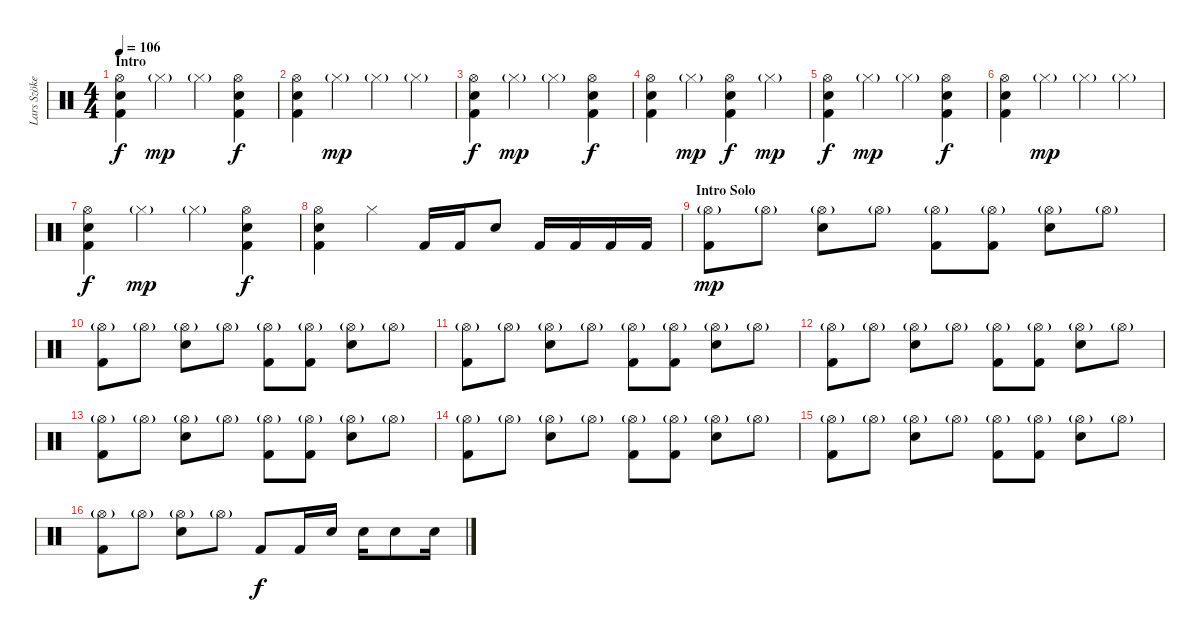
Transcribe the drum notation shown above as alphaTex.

\track ("Lars Szöke/Horgh" "Lars Szöke") {instrument percussion}
\staff {score}
\articulation defaults
\ts (4 4)
\section ("" "Intro")
\tempo 106
\clef neutral
\ks c
("Hi-Hat (open)" "Electric Snare (hit)" "Kick (hit) 2").4{dy f} "Hi-Hat (closed)"{g}.4{dy mp} "Hi-Hat (closed)"{g}.4 ("Hi-Hat (open)" "Electric Snare (hit)" "Kick (hit) 2").4{dy f} |
("Hi-Hat (open)" "Electric Snare (hit)" "Kick (hit) 2").4 "Hi-Hat (closed)"{g}.4{dy mp} "Hi-Hat (closed)"{g}.4 "Hi-Hat (closed)"{g}.4 |
("Hi-Hat (open)" "Electric Snare (hit)" "Kick (hit) 2").4{dy f} "Hi-Hat (closed)"{g}.4{dy mp} "Hi-Hat (closed)"{g}.4 ("Hi-Hat (open)" "Electric Snare (hit)" "Kick (hit) 2").4{dy f} |
("Hi-Hat (open)" "Electric Snare (hit)" "Kick (hit) 2").4 "Hi-Hat (closed)"{g}.4{dy mp} ("Hi-Hat (open)" "Electric Snare (hit)" "Kick (hit) 2").4{dy f} "Hi-Hat (closed)"{g}.4{dy mp} |
("Hi-Hat (open)" "Electric Snare (hit)" "Kick (hit) 2").4{dy f} "Hi-Hat (closed)"{g}.4{dy mp} "Hi-Hat (closed)"{g}.4 ("Hi-Hat (open)" "Electric Snare (hit)" "Kick (hit) 2").4{dy f} |
("Hi-Hat (open)" "Electric Snare (hit)" "Kick (hit) 2").4 "Hi-Hat (closed)"{g}.4{dy mp} "Hi-Hat (closed)"{g}.4 "Hi-Hat (closed)"{g}.4 |
("Hi-Hat (open)" "Electric Snare (hit)" "Kick (hit) 2").4{dy f} "Hi-Hat (closed)"{g}.4{dy mp} "Hi-Hat (closed)"{g}.4 ("Hi-Hat (open)" "Electric Snare (hit)" "Kick (hit) 2").4{dy f} |
("Hi-Hat (open)" "Electric Snare (hit)" "Kick (hit) 2").4 "Hi-Hat (closed)".4 "Kick (hit) 2".16 "Kick (hit) 2".16 "Snare (hit) 2".8 "Kick (hit) 2".16 "Kick (hit) 2".16 "Kick (hit) 2".16 "Kick (hit) 2".16 |
\section ("" "Intro Solo")
("Hi-Hat (open)"{g} "Kick (hit) 2").8{dy mp} "Hi-Hat (open)"{g}.8 ("Hi-Hat (open)"{g} "Snare (hit) 2").8 "Hi-Hat (open)"{g}.8 ("Hi-Hat (open)"{g} "Kick (hit) 2").8 ("Hi-Hat (open)"{g} "Kick (hit) 2").8 ("Hi-Hat (open)"{g} "Snare (hit) 2").8 "Hi-Hat (open)"{g}.8 |
("Hi-Hat (open)"{g} "Kick (hit) 2").8 "Hi-Hat (open)"{g}.8 ("Hi-Hat (open)"{g} "Snare (hit) 2").8 "Hi-Hat (open)"{g}.8 ("Hi-Hat (open)"{g} "Kick (hit) 2").8 ("Hi-Hat (open)"{g} "Kick (hit) 2").8 ("Hi-Hat (open)"{g} "Snare (hit) 2").8 "Hi-Hat (open)"{g}.8 |
("Hi-Hat (open)"{g} "Kick (hit) 2").8 "Hi-Hat (open)"{g}.8 ("Hi-Hat (open)"{g} "Snare (hit) 2").8 "Hi-Hat (open)"{g}.8 ("Hi-Hat (open)"{g} "Kick (hit) 2").8 ("Hi-Hat (open)"{g} "Kick (hit) 2").8 ("Hi-Hat (open)"{g} "Snare (hit) 2").8 "Hi-Hat (open)"{g}.8 |
("Hi-Hat (open)"{g} "Kick (hit) 2").8 "Hi-Hat (open)"{g}.8 ("Hi-Hat (open)"{g} "Snare (hit) 2").8 "Hi-Hat (open)"{g}.8 ("Hi-Hat (open)"{g} "Kick (hit) 2").8 ("Hi-Hat (open)"{g} "Kick (hit) 2").8 ("Hi-Hat (open)"{g} "Snare (hit) 2").8 "Hi-Hat (open)"{g}.8 |
("Hi-Hat (open)"{g} "Kick (hit) 2").8 "Hi-Hat (open)"{g}.8 ("Hi-Hat (open)"{g} "Snare (hit) 2").8 "Hi-Hat (open)"{g}.8 ("Hi-Hat (open)"{g} "Kick (hit) 2").8 ("Hi-Hat (open)"{g} "Kick (hit) 2").8 ("Hi-Hat (open)"{g} "Snare (hit) 2").8 "Hi-Hat (open)"{g}.8 |
("Hi-Hat (open)"{g} "Kick (hit) 2").8 "Hi-Hat (open)"{g}.8 ("Hi-Hat (open)"{g} "Snare (hit) 2").8 "Hi-Hat (open)"{g}.8 ("Hi-Hat (open)"{g} "Kick (hit) 2").8 ("Hi-Hat (open)"{g} "Kick (hit) 2").8 ("Hi-Hat (open)"{g} "Snare (hit) 2").8 "Hi-Hat (open)"{g}.8 |
("Hi-Hat (open)"{g} "Kick (hit) 2").8 "Hi-Hat (open)"{g}.8 ("Hi-Hat (open)"{g} "Snare (hit) 2").8 "Hi-Hat (open)"{g}.8 ("Hi-Hat (open)"{g} "Kick (hit) 2").8 ("Hi-Hat (open)"{g} "Kick (hit) 2").8 ("Hi-Hat (open)"{g} "Snare (hit) 2").8 "Hi-Hat (open)"{g}.8 |
("Hi-Hat (open)"{g} "Kick (hit) 2").8 "Hi-Hat (open)"{g}.8 ("Hi-Hat (open)"{g} "Snare (hit) 2").8 "Hi-Hat (open)"{g}.8 "Kick (hit) 2".8{dy f} "Kick (hit) 2".16 "Snare (hit) 2".16 "Snare (hit) 2".16 "Snare (hit) 2".8 "Snare (hit) 2".16
